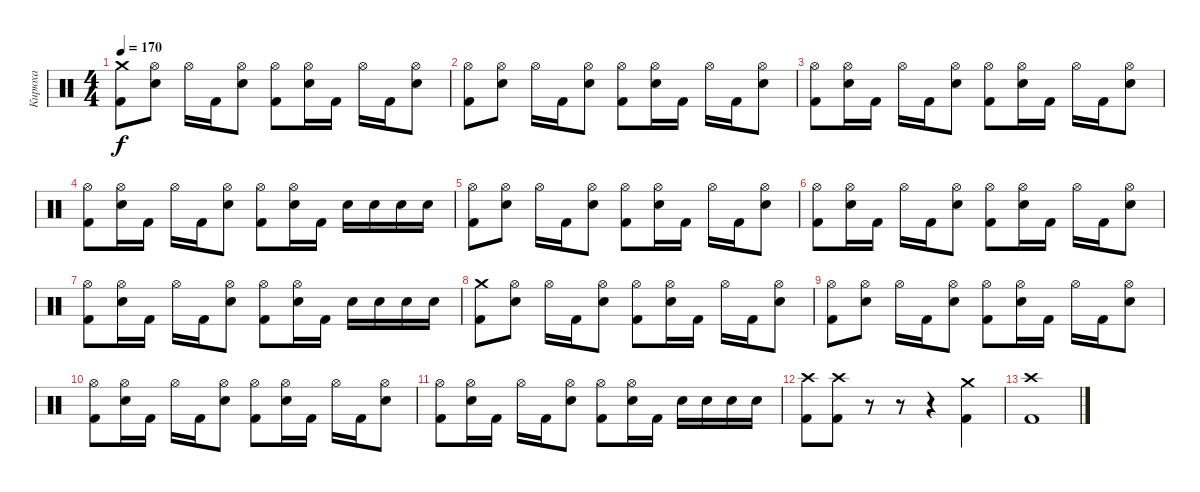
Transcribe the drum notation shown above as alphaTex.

\track ("Кирюха" "Кирюха") {instrument percussion}
\staff {score}
\articulation defaults
\ts (4 4)
\tempo 170
\clef neutral
\ks c
("Kick (hit) 2" "Crash medium (hit)").8{dy f} ("Electric Snare (hit)" "Hi-Hat (open)").8 "Hi-Hat (open)".16 "Kick (hit) 2".16 ("Electric Snare (hit)" "Hi-Hat (open)").8 ("Kick (hit) 2" "Hi-Hat (open)").8 ("Electric Snare (hit)" "Hi-Hat (open)").16 "Kick (hit) 2".16 "Hi-Hat (open)".16 "Kick (hit) 2".16 ("Electric Snare (hit)" "Hi-Hat (open)").8 |
("Kick (hit) 2" "Hi-Hat (open)").8 ("Electric Snare (hit)" "Hi-Hat (open)").8 "Hi-Hat (open)".16 "Kick (hit) 2".16 ("Electric Snare (hit)" "Hi-Hat (open)").8 ("Kick (hit) 2" "Hi-Hat (open)").8 ("Electric Snare (hit)" "Hi-Hat (open)").16 "Kick (hit) 2".16 "Hi-Hat (open)".16 "Kick (hit) 2".16 ("Electric Snare (hit)" "Hi-Hat (open)").8 |
("Kick (hit) 2" "Hi-Hat (open)").8 ("Electric Snare (hit)" "Hi-Hat (open)").16 "Kick (hit) 2".16 "Hi-Hat (open)".16 "Kick (hit) 2".16 ("Electric Snare (hit)" "Hi-Hat (open)").8 ("Kick (hit) 2" "Hi-Hat (open)").8 ("Electric Snare (hit)" "Hi-Hat (open)").16 "Kick (hit) 2".16 "Hi-Hat (open)".16 "Kick (hit) 2".16 ("Electric Snare (hit)" "Hi-Hat (open)").8 |
("Kick (hit) 2" "Hi-Hat (open)").8 ("Electric Snare (hit)" "Hi-Hat (open)").16 "Kick (hit) 2".16 "Hi-Hat (open)".16 "Kick (hit) 2".16 ("Electric Snare (hit)" "Hi-Hat (open)").8 ("Kick (hit) 2" "Hi-Hat (open)").8 ("Electric Snare (hit)" "Hi-Hat (open)").16 "Kick (hit) 2".16 "Electric Snare (hit)".16 "Electric Snare (hit)".16 "Electric Snare (hit)".16 "Electric Snare (hit)".16 |
("Kick (hit) 2" "Hi-Hat (open)").8 ("Electric Snare (hit)" "Hi-Hat (open)").8 "Hi-Hat (open)".16 "Kick (hit) 2".16 ("Electric Snare (hit)" "Hi-Hat (open)").8 ("Kick (hit) 2" "Hi-Hat (open)").8 ("Electric Snare (hit)" "Hi-Hat (open)").16 "Kick (hit) 2".16 "Hi-Hat (open)".16 "Kick (hit) 2".16 ("Electric Snare (hit)" "Hi-Hat (open)").8 |
("Kick (hit) 2" "Hi-Hat (open)").8 ("Electric Snare (hit)" "Hi-Hat (open)").16 "Kick (hit) 2".16 "Hi-Hat (open)".16 "Kick (hit) 2".16 ("Electric Snare (hit)" "Hi-Hat (open)").8 ("Kick (hit) 2" "Hi-Hat (open)").8 ("Electric Snare (hit)" "Hi-Hat (open)").16 "Kick (hit) 2".16 "Hi-Hat (open)".16 "Kick (hit) 2".16 ("Electric Snare (hit)" "Hi-Hat (open)").8 |
("Kick (hit) 2" "Hi-Hat (open)").8 ("Electric Snare (hit)" "Hi-Hat (open)").16 "Kick (hit) 2".16 "Hi-Hat (open)".16 "Kick (hit) 2".16 ("Electric Snare (hit)" "Hi-Hat (open)").8 ("Kick (hit) 2" "Hi-Hat (open)").8 ("Electric Snare (hit)" "Hi-Hat (open)").16 "Kick (hit) 2".16 "Electric Snare (hit)".16 "Electric Snare (hit)".16 "Electric Snare (hit)".16 "Electric Snare (hit)".16 |
("Kick (hit) 2" "Crash medium (hit)").8 ("Electric Snare (hit)" "Hi-Hat (open)").8 "Hi-Hat (open)".16 "Kick (hit) 2".16 ("Electric Snare (hit)" "Hi-Hat (open)").8 ("Kick (hit) 2" "Hi-Hat (open)").8 ("Electric Snare (hit)" "Hi-Hat (open)").16 "Kick (hit) 2".16 "Hi-Hat (open)".16 "Kick (hit) 2".16 ("Electric Snare (hit)" "Hi-Hat (open)").8 |
("Kick (hit) 2" "Hi-Hat (open)").8 ("Electric Snare (hit)" "Hi-Hat (open)").8 "Hi-Hat (open)".16 "Kick (hit) 2".16 ("Electric Snare (hit)" "Hi-Hat (open)").8 ("Kick (hit) 2" "Hi-Hat (open)").8 ("Electric Snare (hit)" "Hi-Hat (open)").16 "Kick (hit) 2".16 "Hi-Hat (open)".16 "Kick (hit) 2".16 ("Electric Snare (hit)" "Hi-Hat (open)").8 |
("Kick (hit) 2" "Hi-Hat (open)").8 ("Electric Snare (hit)" "Hi-Hat (open)").16 "Kick (hit) 2".16 "Hi-Hat (open)".16 "Kick (hit) 2".16 ("Electric Snare (hit)" "Hi-Hat (open)").8 ("Kick (hit) 2" "Hi-Hat (open)").8 ("Electric Snare (hit)" "Hi-Hat (open)").16 "Kick (hit) 2".16 "Hi-Hat (open)".16 "Kick (hit) 2".16 ("Electric Snare (hit)" "Hi-Hat (open)").8 |
("Kick (hit) 2" "Hi-Hat (open)").8 ("Electric Snare (hit)" "Hi-Hat (open)").16 "Kick (hit) 2".16 "Hi-Hat (open)".16 "Kick (hit) 2".16 ("Electric Snare (hit)" "Hi-Hat (open)").8 ("Kick (hit) 2" "Hi-Hat (open)").8 ("Electric Snare (hit)" "Hi-Hat (open)").16 "Kick (hit) 2".16 "Electric Snare (hit)".16 "Electric Snare (hit)".16 "Electric Snare (hit)".16 "Electric Snare (hit)".16 |
("Crash high (hit)" "Kick (hit) 2").8 ("Crash high (hit)" "Kick (hit) 2").8 r.8 r.8 r.4 ("Kick (hit) 2" "Crash medium (hit)").4 |
("Kick (hit) 2" "Crash high (hit)").1
